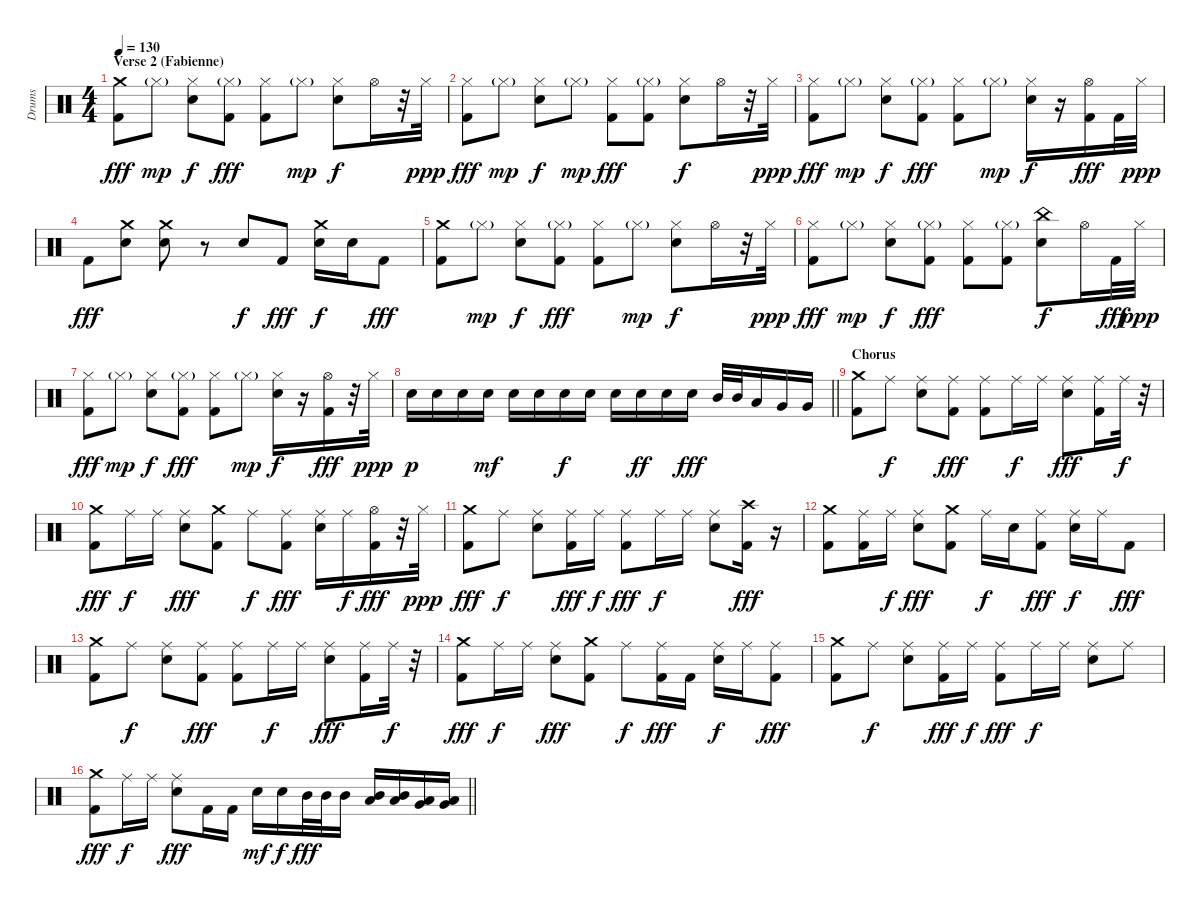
\track ("Drums" "Drums") {instrument percussion}
\staff {score}
\articulation defaults
\ts (4 4)
\section ("" "Verse 2 (Fabienne)")
\tempo 130
\clef neutral
\ks c
("Crash medium (hit)" "Kick (hit) 2").8{dy fff} "Hi-Hat (closed)"{g}.8{dy mp} ("Hi-Hat (closed)" "Snare (hit) 2").8{dy f} ("Hi-Hat (closed)"{g} "Kick (hit) 2").8{dy fff} ("Hi-Hat (closed)" "Kick (hit) 2").8 "Hi-Hat (closed)"{g}.8{dy mp} ("Hi-Hat (closed)" "Snare (hit) 2").8{dy f} "Hi-Hat (open)".16 r.32 "Hi-Hat (closed)".32{dy ppp} |
("Hi-Hat (closed)" "Kick (hit) 2").8{dy fff} "Hi-Hat (closed)"{g}.8{dy mp} ("Hi-Hat (closed)" "Snare (hit) 2").8{dy f} "Hi-Hat (closed)"{g}.8{dy mp} ("Hi-Hat (closed)" "Kick (hit) 2").8{dy fff} ("Hi-Hat (closed)"{g} "Kick (hit) 2").8 ("Hi-Hat (closed)" "Snare (hit) 2").8{dy f} "Hi-Hat (open)".16 r.32 "Hi-Hat (closed)".32{dy ppp} |
("Hi-Hat (closed)" "Kick (hit) 2").8{dy fff} "Hi-Hat (closed)"{g}.8{dy mp} ("Hi-Hat (closed)" "Snare (hit) 2").8{dy f} ("Hi-Hat (closed)"{g} "Kick (hit) 2").8{dy fff} ("Hi-Hat (closed)" "Kick (hit) 2").8 "Hi-Hat (closed)"{g}.8{dy mp} ("Hi-Hat (closed)" "Snare (hit) 2").16{dy f} r.16 ("Hi-Hat (open)" "Kick (hit) 2").16{dy fff} "Kick (hit) 2".32 "Hi-Hat (closed)".32{dy ppp} |
"Kick (hit) 2".8{dy fff} ("Crash medium (hit)" "Snare (hit) 2").8 ("Crash medium (hit)" "Snare (hit) 2").8 r.8 "Snare (hit) 2".8{dy f} "Kick (hit) 2".8{dy fff} ("Crash medium (hit)" "Snare (hit) 2").16{dy f} "Snare (hit) 2".16 "Kick (hit) 2".8{dy fff} |
("Crash medium (hit)" "Kick (hit) 2").8 "Hi-Hat (closed)"{g}.8{dy mp} ("Hi-Hat (closed)" "Snare (hit) 2").8{dy f} ("Hi-Hat (closed)"{g} "Kick (hit) 2").8{dy fff} ("Hi-Hat (closed)" "Kick (hit) 2").8 "Hi-Hat (closed)"{g}.8{dy mp} ("Hi-Hat (closed)" "Snare (hit) 2").8{dy f} "Hi-Hat (open)".16 r.32 "Hi-Hat (closed)".32{dy ppp} |
("Hi-Hat (closed)" "Kick (hit) 2").8{dy fff} "Hi-Hat (closed)"{g}.8{dy mp} ("Hi-Hat (closed)" "Snare (hit) 2").8{dy f} ("Hi-Hat (closed)"{g} "Kick (hit) 2").8{dy fff} ("Hi-Hat (closed)" "Kick (hit) 2").8 ("Hi-Hat (closed)"{g} "Kick (hit) 2").8 ("China (hit)" "Snare (hit) 2").8{dy f} "Hi-Hat (open)".16 "Kick (hit) 2".32{dy fff} "Hi-Hat (closed)".32{dy ppp} |
("Hi-Hat (closed)" "Kick (hit) 2").8{dy fff} "Hi-Hat (closed)"{g}.8{dy mp} ("Hi-Hat (closed)" "Snare (hit) 2").8{dy f} ("Hi-Hat (closed)"{g} "Kick (hit) 2").8{dy fff} ("Hi-Hat (closed)" "Kick (hit) 2").8 "Hi-Hat (closed)"{g}.8{dy mp} ("Hi-Hat (closed)" "Snare (hit) 2").16{dy f} r.16 ("Hi-Hat (open)" "Kick (hit) 2").16{dy fff} r.32 "Hi-Hat (closed)".32{dy ppp} |
\barLineRight lightlight "Snare (hit) 2".16{dy p} "Snare (hit) 2".16 "Snare (hit) 2".16 "Snare (hit) 2".16{dy mf} "Snare (hit) 2".16 "Snare (hit) 2".16 "Snare (hit) 2".16{dy f} "Snare (hit) 2".16 "Snare (hit) 2".16 "Snare (hit) 2".16{dy ff} "Snare (hit) 2".16 "Snare (hit) 2".16{dy fff} "Mid Tom (hit)".32 "Mid Tom (hit)".32 "Low Tom (hit)".16 "Very Low Tom (hit)".16 "Very Low Tom (hit)".16
|
\section ("" "Chorus")
("Crash medium (hit)" "Kick (hit) 2").8 "Ride (middle)".8{dy f} ("Ride (middle)" "Snare (hit) 2").8 ("Ride (middle)" "Kick (hit) 2").8{dy fff} ("Ride (middle)" "Kick (hit) 2").8 "Ride (middle)".16{dy f} "Ride (middle)".16 ("Ride (middle)" "Snare (hit) 2").8{dy fff} ("Ride (middle)" "Kick (hit) 2").16 "Ride (middle)".32{dy f} r.32 |
("Crash medium (hit)" "Kick (hit) 2").8{dy fff} "Ride (middle)".16{dy f} "Ride (middle)".16 ("Ride (middle)" "Snare (hit) 2").8{dy fff} ("Crash medium (hit)" "Kick (hit) 2").8 "Ride (middle)".8{dy f} ("Ride (middle)" "Kick (hit) 2").8{dy fff} ("Ride (middle)" "Snare (hit) 2").16 "Ride (middle)".16{dy f} ("Hi-Hat (open)" "Kick (hit) 2").16{dy fff} r.32 "Hi-Hat (closed)".32{dy ppp} |
("Crash medium (hit)" "Kick (hit) 2").8{dy fff} "Ride (middle)".8{dy f} ("Ride (middle)" "Snare (hit) 2").8 ("Ride (middle)" "Kick (hit) 2").16{dy fff} "Ride (middle)".16{dy f} ("Ride (middle)" "Kick (hit) 2").8{dy fff} "Ride (middle)".16{dy f} "Ride (middle)".16 ("Ride (middle)" "Snare (hit) 2").8 ("Crash high (hit)" "Kick (hit) 2").16{dy fff} r.16 |
("Crash medium (hit)" "Kick (hit) 2").8 ("Ride (middle)" "Kick (hit) 2").16 "Ride (middle)".16{dy f} ("Ride (middle)" "Snare (hit) 2").8{dy fff} ("Crash medium (hit)" "Kick (hit) 2").8 "Ride (middle)".16{dy f} "Snare (hit) 2".16 ("Ride (middle)" "Kick (hit) 2").8{dy fff} ("Ride (middle)" "Snare (hit) 2").16{dy f} "Ride (middle)".16 "Kick (hit) 2".8{dy fff} |
("Crash medium (hit)" "Kick (hit) 2").8 "Ride (middle)".8{dy f} ("Ride (middle)" "Snare (hit) 2").8 ("Ride (middle)" "Kick (hit) 2").8{dy fff} ("Ride (middle)" "Kick (hit) 2").8 "Ride (middle)".16{dy f} "Ride (middle)".16 ("Ride (middle)" "Snare (hit) 2").8{dy fff} ("Ride (middle)" "Kick (hit) 2").16 "Ride (middle)".32{dy f} r.32 |
("Crash medium (hit)" "Kick (hit) 2").8{dy fff} "Ride (middle)".16{dy f} "Ride (middle)".16 ("Ride (middle)" "Snare (hit) 2").8{dy fff} ("Crash medium (hit)" "Kick (hit) 2").8 "Ride (middle)".8{dy f} ("Ride (middle)" "Kick (hit) 2").16{dy fff} "Kick (hit) 2".16 ("Ride (middle)" "Snare (hit) 2").16{dy f} "Ride (middle)".16 ("Ride (middle)" "Kick (hit) 2").8{dy fff} |
("Crash medium (hit)" "Kick (hit) 2").8 "Ride (middle)".8{dy f} ("Ride (middle)" "Snare (hit) 2").8 ("Ride (middle)" "Kick (hit) 2").16{dy fff} "Ride (middle)".16{dy f} ("Ride (middle)" "Kick (hit) 2").8{dy fff} "Ride (middle)".16{dy f} "Ride (middle)".16 ("Ride (middle)" "Snare (hit) 2").8 "Ride (middle)".8 |
\barLineRight lightlight
("Crash medium (hit)" "Kick (hit) 2").8{dy fff} "Ride (middle)".16{dy f} "Ride (middle)".16 ("Ride (middle)" "Snare (hit) 2").8{dy fff} "Kick (hit) 2".16 "Kick (hit) 2".16 "Snare (hit) 2".16{dy mf} "Snare (hit) 2".16{dy f} "Mid Tom (hit)".32{dy fff volume 16} "Mid Tom (hit)".32 "Mid Tom (hit)".16 ("Mid Tom (hit)" "Low Tom (hit)").16 ("Mid Tom (hit)" "Low Tom (hit)").16 ("Low Tom (hit)" "Very Low Tom (hit)").16 ("Low Tom (hit)" "Very Low Tom (hit)").16
